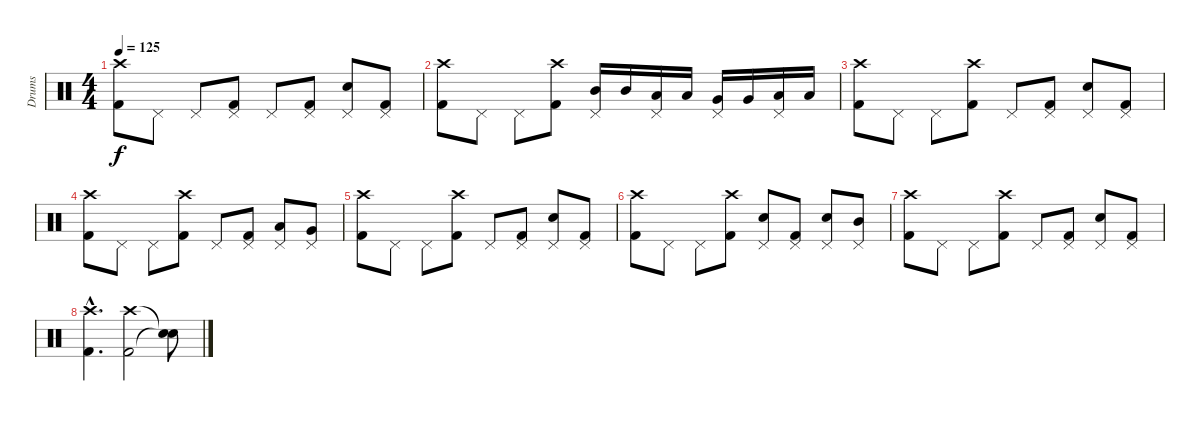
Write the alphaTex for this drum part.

\track ("Drums" "Drums") {instrument percussion}
\staff {score}
\articulation defaults
\ts (4 4)
\tempo 125
\clef neutral
\ks c
("Crash high (hit)" "Kick (hit) 2").8{dy f} "Pedal Hi-Hat (hit)".8 "Pedal Hi-Hat (hit)".8 ("Pedal Hi-Hat (hit)" "Kick (hit) 2").8 "Pedal Hi-Hat (hit)".8 ("Pedal Hi-Hat (hit)" "Kick (hit) 2").8 ("Pedal Hi-Hat (hit)" "Snare (hit) 2").8 ("Pedal Hi-Hat (hit)" "Kick (hit) 2").8 |
("Crash high (hit)" "Kick (hit) 2").8 "Pedal Hi-Hat (hit)".8 "Pedal Hi-Hat (hit)".8 ("Crash high (hit)" "Kick (hit) 2").8 ("Pedal Hi-Hat (hit)" "Mid Tom (hit)").16 "Mid Tom (hit)".16 ("Pedal Hi-Hat (hit)" "Low Tom (hit)").16 "Low Tom (hit)".16 ("Pedal Hi-Hat (hit)" "Very Low Tom (hit)").16 "Very Low Tom (hit)".16 ("Pedal Hi-Hat (hit)" "Low Floor Tom (hit)").16 "Low Floor Tom (hit)".16 |
("Crash high (hit)" "Kick (hit) 2").8 "Pedal Hi-Hat (hit)".8 "Pedal Hi-Hat (hit)".8 ("Crash high (hit)" "Kick (hit) 2").8 "Pedal Hi-Hat (hit)".8 ("Pedal Hi-Hat (hit)" "Kick (hit) 2").8 ("Pedal Hi-Hat (hit)" "Snare (hit) 2").8 ("Pedal Hi-Hat (hit)" "Kick (hit) 2").8 |
("Crash high (hit)" "Kick (hit) 2").8 "Pedal Hi-Hat (hit)".8 "Pedal Hi-Hat (hit)".8 ("Crash high (hit)" "Kick (hit) 2").8 "Pedal Hi-Hat (hit)".8 ("Pedal Hi-Hat (hit)" "Kick (hit) 2").8 ("Pedal Hi-Hat (hit)" "Low Tom (hit)").8 ("Pedal Hi-Hat (hit)" "Very Low Tom (hit)").8 |
("Crash high (hit)" "Kick (hit) 2").8 "Pedal Hi-Hat (hit)".8 "Pedal Hi-Hat (hit)".8 ("Crash high (hit)" "Kick (hit) 2").8 "Pedal Hi-Hat (hit)".8 ("Pedal Hi-Hat (hit)" "Kick (hit) 2").8 ("Pedal Hi-Hat (hit)" "Snare (hit) 2").8 ("Pedal Hi-Hat (hit)" "Kick (hit) 2").8 |
("Crash high (hit)" "Kick (hit) 2").8 "Pedal Hi-Hat (hit)".8 "Pedal Hi-Hat (hit)".8 ("Crash high (hit)" "Kick (hit) 2").8 ("Pedal Hi-Hat (hit)" "Snare (hit) 2").8 ("Pedal Hi-Hat (hit)" "Kick (hit) 2").8 ("Pedal Hi-Hat (hit)" "Snare (hit) 2").8 ("Pedal Hi-Hat (hit)" "Mid Tom (hit)").8 |
("Crash high (hit)" "Kick (hit) 2").8 "Pedal Hi-Hat (hit)".8 "Pedal Hi-Hat (hit)".8 ("Crash high (hit)" "Kick (hit) 2").8 "Pedal Hi-Hat (hit)".8 ("Pedal Hi-Hat (hit)" "Kick (hit) 2").8 ("Pedal Hi-Hat (hit)" "Snare (hit) 2").8 ("Pedal Hi-Hat (hit)" "Kick (hit) 2").8 |
("Crash high (hit)"{hac} "Kick (hit) 2"{hac}).4{d} ("Crash high (hit)" "Kick (hit) 2").2 ("Snare (hit)"{t} "Snare (hit)"{t}).8
